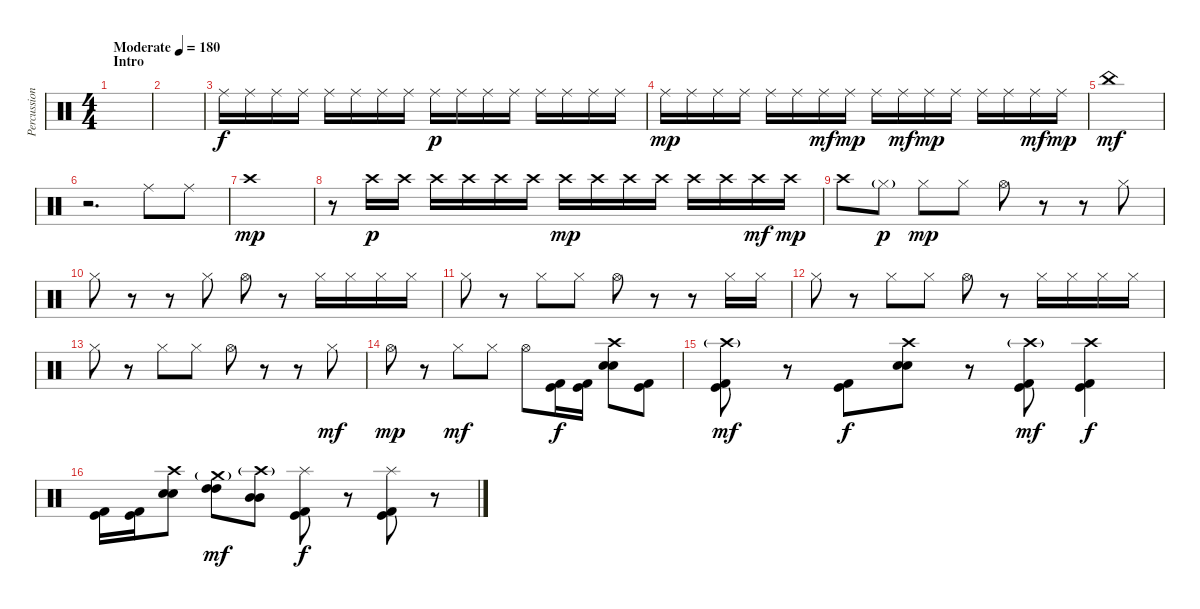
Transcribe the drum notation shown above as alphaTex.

\track ("Percussion" "Percussion") {instrument percussion}
\staff {score}
\articulation defaults
\ts (4 4)
\section ("" "Intro")
\tempo (180 "Moderate")
\clef neutral
\ks c
|
|
"Ride (middle)".16 "Ride (middle)".16 "Ride (middle)".16 "Ride (middle)".16 "Ride (middle)".16 "Ride (middle)".16 "Ride (middle)".16 "Ride (middle)".16 "Ride (middle)".16{dy p} "Ride (middle)".16 "Ride (middle)".16 "Ride (middle)".16 "Ride (middle)".16 "Ride (middle)".16 "Ride (middle)".16 "Ride (middle)".16 |
"Ride (middle)".16{dy mp} "Ride (middle)".16 "Ride (middle)".16 "Ride (middle)".16 "Ride (middle)".16 "Ride (middle)".16 "Ride (middle)".16{dy mf} "Ride (middle)".16{dy mp} "Ride (middle)".16 "Ride (middle)".16{dy mf} "Ride (middle)".16{dy mp} "Ride (middle)".16 "Ride (middle)".16 "Ride (middle)".16 "Ride (middle)".16{dy mf} "Ride (middle)".16{dy mp} |
"China (hit)".1{dy mf} |
r.2{d} "Ride (middle)".8 "Ride (middle)".8 |
"Crash high (hit)".1{dy mp} |
r.8 "Crash high (hit)".16{dy p} "Crash high (hit)".16 "Crash high (hit)".16 "Crash high (hit)".16 "Crash high (hit)".16 "Crash high (hit)".16 "Crash high (hit)".16{dy mp} "Crash high (hit)".16 "Crash high (hit)".16 "Crash high (hit)".16 "Crash high (hit)".16 "Crash high (hit)".16 "Crash high (hit)".16{dy mf} "Crash high (hit)".16{dy mp} |
"Crash high (hit)".8 "Hi-Hat (closed)"{g}.8{dy p} "Hi-Hat (closed)".8{dy mp} "Hi-Hat (closed)".8 "Hi-Hat (open)".8 r.8 r.8 "Hi-Hat (closed)".8 |
"Hi-Hat (closed)".8 r.8 r.8 "Hi-Hat (closed)".8 "Hi-Hat (open)".8 r.8 "Hi-Hat (closed)".16 "Hi-Hat (closed)".16 "Hi-Hat (closed)".16 "Hi-Hat (closed)".16 |
"Hi-Hat (closed)".8 r.8 "Hi-Hat (closed)".8 "Hi-Hat (closed)".8 "Hi-Hat (open)".8 r.8 r.8 "Hi-Hat (closed)".16 "Hi-Hat (closed)".16 |
"Hi-Hat (closed)".8 r.8 "Hi-Hat (closed)".8 "Hi-Hat (closed)".8 "Hi-Hat (open)".8 r.8 "Hi-Hat (closed)".16 "Hi-Hat (closed)".16 "Hi-Hat (closed)".16 "Hi-Hat (closed)".16 |
"Hi-Hat (closed)".8 r.8 "Hi-Hat (closed)".8 "Hi-Hat (closed)".8 "Hi-Hat (open)".8 r.8 r.8 "Hi-Hat (closed)".8{dy mf} |
"Hi-Hat (open)".8{dy mp} r.8 "Hi-Hat (closed)".8{dy mf} "Hi-Hat (closed)".8 "Hi-Hat (open)".8 ("Kick (hit) 2" "Kick (hit)").16{dy f} ("Kick (hit) 2" "Kick (hit)").16 ("Crash high (hit)" "Electric Snare (hit)" "Electric Snare (hit)").8 ("Kick (hit) 2" "Kick (hit)").8 |
("Crash high (hit)"{g} "Kick (hit) 2" "Kick (hit)").8{dy mf} r.8 ("Kick (hit) 2" "Kick (hit)").8{dy f} ("Crash high (hit)" "Electric Snare (hit)" "Electric Snare (hit)").8 r.8 ("Crash high (hit)"{g} "Kick (hit) 2" "Kick (hit)").8{dy mf} ("Crash high (hit)" "Kick (hit) 2" "Kick (hit)").4{dy f} |
("Kick (hit) 2" "Kick (hit)").16 ("Kick (hit) 2" "Kick (hit)").16 ("Crash high (hit)" "Electric Snare (hit)" "Electric Snare (hit)").8 ("Crash medium (hit)"{g} "High Tom (hit)" "High Tom (hit)").8{dy mf} ("Crash high (hit)"{g} "Mid Tom (hit)" "Mid Tom (hit)").8 ("Splash (hit)" "Kick (hit) 2" "Kick (hit)").8{dy f} r.8 ("Splash (hit)" "Kick (hit) 2" "Kick (hit)").8 r.8
